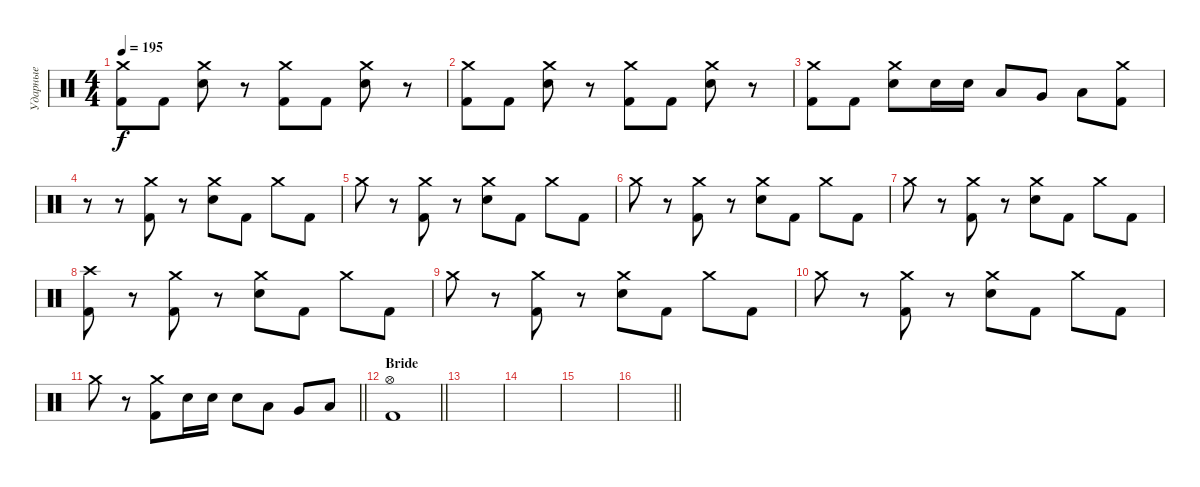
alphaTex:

\track ("Ударные" "Ударные") {instrument percussion}
\staff {score}
\articulation defaults
\ts (4 4)
\tempo 195
\clef neutral
\ks c
("Crash medium (hit)" "Kick (hit) 2").8{dy f} "Kick (hit) 2".8 ("Crash medium (hit)" "Electric Snare (hit)").8 r.8 ("Crash medium (hit)" "Kick (hit) 2").8 "Kick (hit) 2".8 ("Crash medium (hit)" "Electric Snare (hit)").8 r.8 |
("Crash medium (hit)" "Kick (hit) 2").8 "Kick (hit) 2".8 ("Crash medium (hit)" "Electric Snare (hit)").8 r.8 ("Crash medium (hit)" "Kick (hit) 2").8 "Kick (hit) 2".8 ("Crash medium (hit)" "Electric Snare (hit)").8 r.8 |
("Crash medium (hit)" "Kick (hit) 2").8 "Kick (hit) 2".8 ("Crash medium (hit)" "Electric Snare (hit)").8 "Electric Snare (hit)".16 "Electric Snare (hit)".16 "Low Tom (hit)".8 "Very Low Tom (hit)".8 "Low Tom (hit)".8 ("Crash medium (hit)" "Kick (hit) 2").8 |
r.8 r.8 ("Crash medium (hit)" "Kick (hit) 2").8 r.8 ("Crash medium (hit)" "Electric Snare (hit)").8 "Kick (hit) 2".8 "Crash medium (hit)".8 "Kick (hit) 2".8 |
"Crash medium (hit)".8 r.8 ("Crash medium (hit)" "Kick (hit) 2").8 r.8 ("Crash medium (hit)" "Electric Snare (hit)").8 "Kick (hit) 2".8 "Crash medium (hit)".8 "Kick (hit) 2".8 |
"Crash medium (hit)".8 r.8 ("Crash medium (hit)" "Kick (hit) 2").8 r.8 ("Crash medium (hit)" "Electric Snare (hit)").8 "Kick (hit) 2".8 "Crash medium (hit)".8 "Kick (hit) 2".8 |
"Crash medium (hit)".8 r.8 ("Crash medium (hit)" "Kick (hit) 2").8 r.8 ("Crash medium (hit)" "Electric Snare (hit)").8 "Kick (hit) 2".8 "Crash medium (hit)".8 "Kick (hit) 2".8 |
("Crash high (hit)" "Kick (hit) 2").8 r.8 ("Crash medium (hit)" "Kick (hit) 2").8 r.8 ("Crash medium (hit)" "Electric Snare (hit)").8 "Kick (hit) 2".8 "Crash medium (hit)".8 "Kick (hit) 2".8 |
"Crash medium (hit)".8 r.8 ("Crash medium (hit)" "Kick (hit) 2").8 r.8 ("Crash medium (hit)" "Electric Snare (hit)").8 "Kick (hit) 2".8 "Crash medium (hit)".8 "Kick (hit) 2".8 |
"Crash medium (hit)".8 r.8 ("Crash medium (hit)" "Kick (hit) 2").8 r.8 ("Crash medium (hit)" "Electric Snare (hit)").8 "Kick (hit) 2".8 "Crash medium (hit)".8 "Kick (hit) 2".8 |
\barLineRight lightlight "Crash medium (hit)".8
r.8 ("Crash medium (hit)" "Kick (hit) 2").8 "Electric Snare (hit)".16 "Electric Snare (hit)".16 "Electric Snare (hit)".8 "Low Tom (hit)".8 "Very Low Tom (hit)".8 "Low Tom (hit)".8 |
\section ("" "Bride")
\barLineRight lightlight
("Hi-Hat (open)" "Kick (hit) 2").1 |
|
|
|
\barLineRight lightlight
